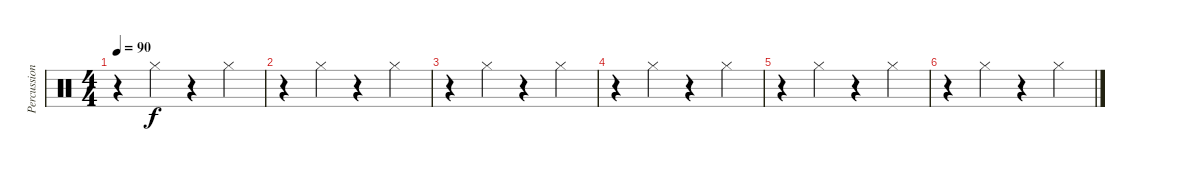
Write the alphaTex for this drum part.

\track ("Percussion" "Percussion") {instrument percussion}
\staff {score}
\articulation defaults
\ts (4 4)
\tempo 90
\clef neutral
\ks c
r.4{dy f} "Hi-Hat (closed)".4 r.4 "Hi-Hat (closed)".4 |
r.4 "Hi-Hat (closed)".4 r.4 "Hi-Hat (closed)".4 |
r.4 "Hi-Hat (closed)".4 r.4 "Hi-Hat (closed)".4 |
r.4 "Hi-Hat (closed)".4 r.4 "Hi-Hat (closed)".4 |
r.4 "Hi-Hat (closed)".4 r.4 "Hi-Hat (closed)".4 |
r.4 "Hi-Hat (closed)".4 r.4 "Hi-Hat (closed)".4
